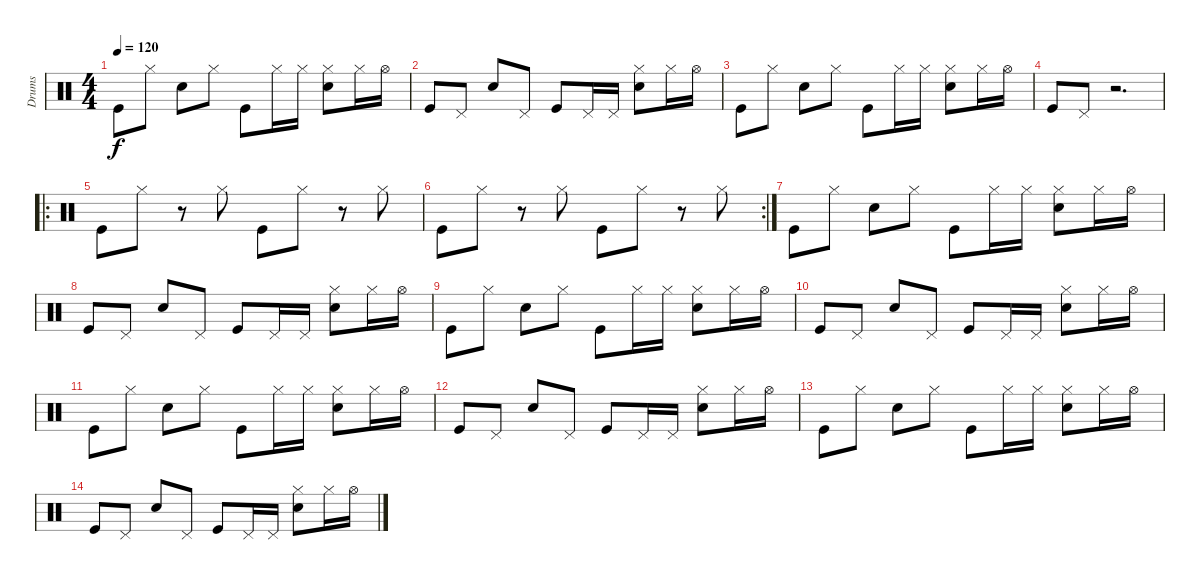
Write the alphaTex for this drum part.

\track ("Drums" "Drums") {instrument percussion}
\staff {score}
\articulation defaults
\ts (4 4)
\tempo 120
\clef neutral
\ks c "Kick (hit)".8{dy f} "Hi-Hat (closed)".8 "Snare (hit) 2".8 "Hi-Hat (closed)".8 "Kick (hit)".8 "Hi-Hat (closed)".16 "Hi-Hat (closed)".16
("Hi-Hat (closed)" "Snare (hit) 2").8 "Hi-Hat (closed)".16 "Hi-Hat (open)".16 |
"Kick (hit)".8 "Pedal Hi-Hat (hit)".8 "Snare (hit) 2".8 "Pedal Hi-Hat (hit)".8 "Kick (hit)".8 "Pedal Hi-Hat (hit)".16 "Pedal Hi-Hat (hit)".16 ("Hi-Hat (closed)" "Snare (hit) 2").8 "Hi-Hat (closed)".16 "Hi-Hat (open)".16 |
"Kick (hit)".8 "Hi-Hat (closed)".8 "Snare (hit) 2".8 "Hi-Hat (closed)".8 "Kick (hit)".8 "Hi-Hat (closed)".16 "Hi-Hat (closed)".16 ("Hi-Hat (closed)" "Snare (hit) 2").8 "Hi-Hat (closed)".16 "Hi-Hat (open)".16 |
"Kick (hit)".8 "Pedal Hi-Hat (hit)".8 r.2{d} |
\ro "Kick (hit)".8 "Hi-Hat (closed)".8
r.8 "Hi-Hat (closed)".8 "Kick (hit)".8 "Hi-Hat (closed)".8 r.8 "Hi-Hat (closed)".8 |
\rc 2 "Kick (hit)".8 "Hi-Hat (closed)".8
r.8 "Hi-Hat (closed)".8 "Kick (hit)".8 "Hi-Hat (closed)".8 r.8 "Hi-Hat (closed)".8 |
"Kick (hit)".8 "Hi-Hat (closed)".8 "Snare (hit) 2".8 "Hi-Hat (closed)".8 "Kick (hit)".8 "Hi-Hat (closed)".16 "Hi-Hat (closed)".16 ("Hi-Hat (closed)" "Snare (hit) 2").8 "Hi-Hat (closed)".16 "Hi-Hat (open)".16 |
"Kick (hit)".8 "Pedal Hi-Hat (hit)".8 "Snare (hit) 2".8 "Pedal Hi-Hat (hit)".8 "Kick (hit)".8 "Pedal Hi-Hat (hit)".16 "Pedal Hi-Hat (hit)".16 ("Hi-Hat (closed)" "Snare (hit) 2").8 "Hi-Hat (closed)".16 "Hi-Hat (open)".16 |
"Kick (hit)".8 "Hi-Hat (closed)".8 "Snare (hit) 2".8 "Hi-Hat (closed)".8 "Kick (hit)".8 "Hi-Hat (closed)".16 "Hi-Hat (closed)".16 ("Hi-Hat (closed)" "Snare (hit) 2").8 "Hi-Hat (closed)".16 "Hi-Hat (open)".16 |
"Kick (hit)".8 "Pedal Hi-Hat (hit)".8 "Snare (hit) 2".8 "Pedal Hi-Hat (hit)".8 "Kick (hit)".8 "Pedal Hi-Hat (hit)".16 "Pedal Hi-Hat (hit)".16 ("Hi-Hat (closed)" "Snare (hit) 2").8 "Hi-Hat (closed)".16 "Hi-Hat (open)".16 |
"Kick (hit)".8 "Hi-Hat (closed)".8 "Snare (hit) 2".8 "Hi-Hat (closed)".8 "Kick (hit)".8 "Hi-Hat (closed)".16 "Hi-Hat (closed)".16 ("Hi-Hat (closed)" "Snare (hit) 2").8 "Hi-Hat (closed)".16 "Hi-Hat (open)".16 |
"Kick (hit)".8 "Pedal Hi-Hat (hit)".8 "Snare (hit) 2".8 "Pedal Hi-Hat (hit)".8 "Kick (hit)".8 "Pedal Hi-Hat (hit)".16 "Pedal Hi-Hat (hit)".16 ("Hi-Hat (closed)" "Snare (hit) 2").8 "Hi-Hat (closed)".16 "Hi-Hat (open)".16 |
"Kick (hit)".8 "Hi-Hat (closed)".8 "Snare (hit) 2".8 "Hi-Hat (closed)".8 "Kick (hit)".8 "Hi-Hat (closed)".16 "Hi-Hat (closed)".16 ("Hi-Hat (closed)" "Snare (hit) 2").8 "Hi-Hat (closed)".16 "Hi-Hat (open)".16 |
"Kick (hit)".8 "Pedal Hi-Hat (hit)".8 "Snare (hit) 2".8 "Pedal Hi-Hat (hit)".8 "Kick (hit)".8 "Pedal Hi-Hat (hit)".16 "Pedal Hi-Hat (hit)".16 ("Hi-Hat (closed)" "Snare (hit) 2").8 "Hi-Hat (closed)".16 "Hi-Hat (open)".16
